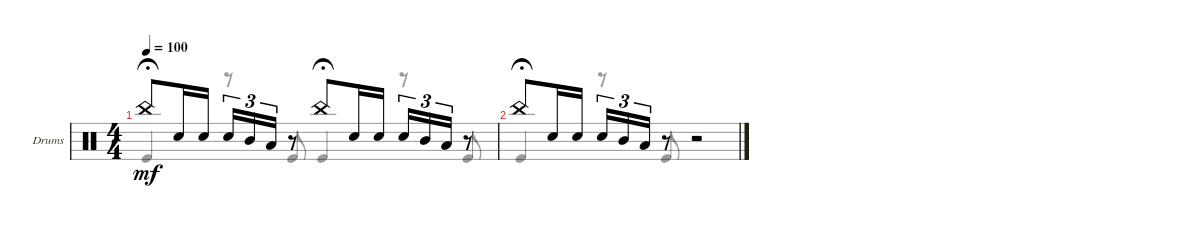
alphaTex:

\defaultSystemsLayout 4
\bracketExtendMode groupsimilarinstruments
\firstSystemTrackNameOrientation horizontal
\otherSystemsTrackNameOrientation horizontal
\track ("John Bonham" "Drums") {instrument percussion}
\staff {score}
\articulation defaults
\voice
\ts (4 4)
\tempo 100
\clef neutral
\ks c "China (hit)".8{dy mf fermata (medium 0.5)} "Snare (hit) 2".16 "Snare (hit) 2".16 "Snare (hit) 2".16{tu (3 2)} "Mid Tom (hit)".16{tu (3 2)} "Low Tom (hit)".16{tu (3 2)}
r.8 "China (hit)".8{fermata (medium 0.5)} "Snare (hit) 2".16 "Snare (hit) 2".16 "Snare (hit) 2".16{tu (3 2)} "Mid Tom (hit)".16{tu (3 2)} "Low Tom (hit)".16{tu (3 2)} r.8 |
"China (hit)".8{fermata (medium 0.5)} "Snare (hit) 2".16 "Snare (hit) 2".16 "Snare (hit) 2".16{tu (3 2)} "Mid Tom (hit)".16{tu (3 2)} "Low Tom (hit)".16{tu (3 2)} r.8 r.2
\voice
\clef neutral
\ottava regular
\simile none
\ks c "Kick (hit)".4{dy mf fermata (medium 0.5) beam invert}
r.8{beam invert} "Kick (hit)".8{beam invert} "Kick (hit)".4{fermata (medium 0.5) beam invert} r.8{beam invert} "Kick (hit)".8{beam invert} |
"Kick (hit)".4{fermata (medium 0.5) beam invert} r.8{beam invert} "Kick (hit)".8{beam invert} r.2{beam invert}
